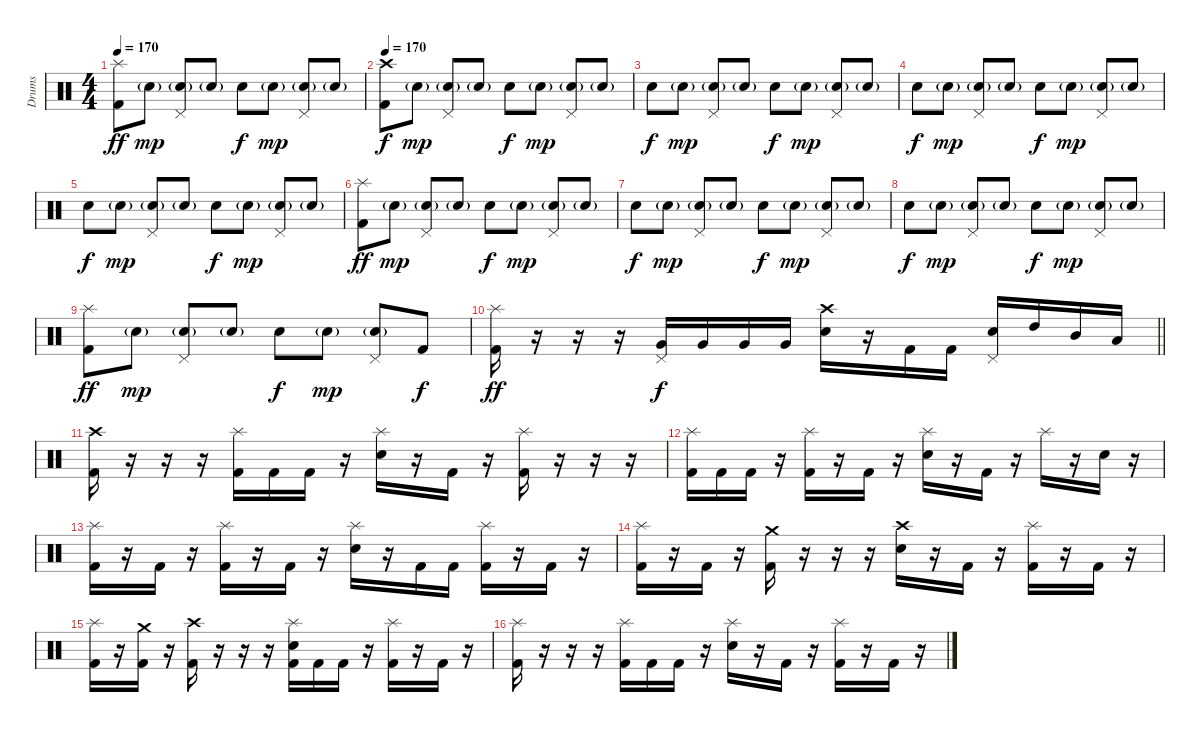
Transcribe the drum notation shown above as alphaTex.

\track ("Drums" "Drums") {instrument percussion}
\staff {score}
\articulation defaults
\ts (4 4)
\tempo 170
\clef neutral
\ks c
("Splash (hit)" "Kick (hit) 2").8{dy ff} "Electric Snare (hit)"{g}.8{dy mp} ("Pedal Hi-Hat (hit)" "Electric Snare (hit)"{g}).8 "Electric Snare (hit)"{g}.8 "Electric Snare (hit)".8{dy f} "Electric Snare (hit)"{g}.8{dy mp} ("Pedal Hi-Hat (hit)" "Electric Snare (hit)"{g}).8 "Electric Snare (hit)"{g}.8 |
\tempo 170
("Crash high (hit)" "Kick (hit) 2").8{dy f} "Electric Snare (hit)"{g}.8{dy mp} ("Pedal Hi-Hat (hit)" "Electric Snare (hit)"{g}).8 "Electric Snare (hit)"{g}.8 "Electric Snare (hit)".8{dy f} "Electric Snare (hit)"{g}.8{dy mp} ("Pedal Hi-Hat (hit)" "Electric Snare (hit)"{g}).8 "Electric Snare (hit)"{g}.8 |
"Electric Snare (hit)".8{dy f} "Electric Snare (hit)"{g}.8{dy mp} ("Pedal Hi-Hat (hit)" "Electric Snare (hit)"{g}).8 "Electric Snare (hit)"{g}.8 "Electric Snare (hit)".8{dy f} "Electric Snare (hit)"{g}.8{dy mp} ("Pedal Hi-Hat (hit)" "Electric Snare (hit)"{g}).8 "Electric Snare (hit)"{g}.8 |
"Electric Snare (hit)".8{dy f} "Electric Snare (hit)"{g}.8{dy mp} ("Pedal Hi-Hat (hit)" "Electric Snare (hit)"{g}).8 "Electric Snare (hit)"{g}.8 "Electric Snare (hit)".8{dy f} "Electric Snare (hit)"{g}.8{dy mp} ("Pedal Hi-Hat (hit)" "Electric Snare (hit)"{g}).8 "Electric Snare (hit)"{g}.8 |
"Electric Snare (hit)".8{dy f} "Electric Snare (hit)"{g}.8{dy mp} ("Pedal Hi-Hat (hit)" "Electric Snare (hit)"{g}).8 "Electric Snare (hit)"{g}.8 "Electric Snare (hit)".8{dy f} "Electric Snare (hit)"{g}.8{dy mp} ("Pedal Hi-Hat (hit)" "Electric Snare (hit)"{g}).8 "Electric Snare (hit)"{g}.8 |
("Splash (hit)" "Kick (hit) 2").8{dy ff} "Electric Snare (hit)"{g}.8{dy mp} ("Pedal Hi-Hat (hit)" "Electric Snare (hit)"{g}).8 "Electric Snare (hit)"{g}.8 "Electric Snare (hit)".8{dy f} "Electric Snare (hit)"{g}.8{dy mp} ("Pedal Hi-Hat (hit)" "Electric Snare (hit)"{g}).8 "Electric Snare (hit)"{g}.8 |
"Electric Snare (hit)".8{dy f} "Electric Snare (hit)"{g}.8{dy mp} ("Pedal Hi-Hat (hit)" "Electric Snare (hit)"{g}).8 "Electric Snare (hit)"{g}.8 "Electric Snare (hit)".8{dy f} "Electric Snare (hit)"{g}.8{dy mp} ("Pedal Hi-Hat (hit)" "Electric Snare (hit)"{g}).8 "Electric Snare (hit)"{g}.8 |
"Electric Snare (hit)".8{dy f} "Electric Snare (hit)"{g}.8{dy mp} ("Pedal Hi-Hat (hit)" "Electric Snare (hit)"{g}).8 "Electric Snare (hit)"{g}.8 "Electric Snare (hit)".8{dy f} "Electric Snare (hit)"{g}.8{dy mp} ("Pedal Hi-Hat (hit)" "Electric Snare (hit)"{g}).8 "Electric Snare (hit)"{g}.8 |
("Splash (hit)" "Kick (hit) 2").8{dy ff} "Electric Snare (hit)"{g}.8{dy mp} ("Pedal Hi-Hat (hit)" "Electric Snare (hit)"{g}).8 "Electric Snare (hit)"{g}.8 "Electric Snare (hit)".8{dy f} "Electric Snare (hit)"{g}.8{dy mp} ("Pedal Hi-Hat (hit)" "Electric Snare (hit)"{g}).8 "Kick (hit) 2".8{dy f} |
\barLineRight lightlight
("Splash (hit)" "Kick (hit) 2").16{dy ff} r.16 r.16 r.16 ("Pedal Hi-Hat (hit)" "Very Low Tom (hit)").16{dy f} "Very Low Tom (hit)".16 "Very Low Tom (hit)".16 "Very Low Tom (hit)".16 ("Crash high (hit)" "Electric Snare (hit)").16 r.16 "Kick (hit) 2".16 "Kick (hit) 2".16 ("Pedal Hi-Hat (hit)" "Electric Snare (hit)").16 "High Tom (hit)".16 "Mid Tom (hit)".16 "Low Tom (hit)".16 |
\section ("" "")
("Crash high (hit)" "Kick (hit) 2").16 r.16 r.16 r.16 ("Splash (hit)" "Kick (hit) 2").16 "Kick (hit) 2".16 "Kick (hit) 2".16 r.16 ("Splash (hit)" "Electric Snare (hit)").16 r.16 "Kick (hit) 2".16 r.16 ("Splash (hit)" "Kick (hit) 2").16 r.16 r.16 r.16 |
("Splash (hit)" "Kick (hit) 2").16 "Kick (hit) 2".16 "Kick (hit) 2".16 r.16 ("Splash (hit)" "Kick (hit) 2").16 r.16 "Kick (hit) 2".16 r.16 ("Splash (hit)" "Electric Snare (hit)").16 r.16 "Kick (hit) 2".16 r.16 "Splash (hit)".16 r.16 "Electric Snare (hit)".16 r.16 |
("Splash (hit)" "Kick (hit) 2").16 r.16 "Kick (hit) 2".16 r.16 ("Splash (hit)" "Kick (hit) 2").16 r.16 "Kick (hit) 2".16 r.16 ("Splash (hit)" "Electric Snare (hit)").16 r.16 "Kick (hit) 2".16 "Kick (hit) 2".16 ("Splash (hit)" "Kick (hit) 2").16 r.16 "Kick (hit) 2".16 r.16 |
("Splash (hit)" "Kick (hit) 2").16 r.16 "Kick (hit) 2".16 r.16 ("Crash medium (hit)" "Kick (hit) 2").16 r.16 r.16 r.16 ("Crash high (hit)" "Electric Snare (hit)").16 r.16 "Kick (hit) 2".16 r.16 ("Splash (hit)" "Kick (hit) 2").16 r.16 "Kick (hit) 2".16 r.16 |
("Splash (hit)" "Kick (hit) 2").16 r.16 ("Crash medium (hit)" "Kick (hit) 2").16 r.16 ("Crash high (hit)" "Kick (hit) 2").16 r.16 r.16 r.16 ("Splash (hit)" "Electric Snare (hit)" "Kick (hit) 2").16 "Kick (hit) 2".16 "Kick (hit) 2".16 r.16 ("Splash (hit)" "Kick (hit) 2").16 r.16 "Kick (hit) 2".16 r.16 |
("Splash (hit)" "Kick (hit) 2").16 r.16 r.16 r.16 ("Splash (hit)" "Kick (hit) 2").16 "Kick (hit) 2".16 "Kick (hit) 2".16 r.16 ("Splash (hit)" "Electric Snare (hit)").16 r.16 "Kick (hit) 2".16 r.16 ("Splash (hit)" "Kick (hit) 2").16 r.16 "Kick (hit) 2".16 r.16
